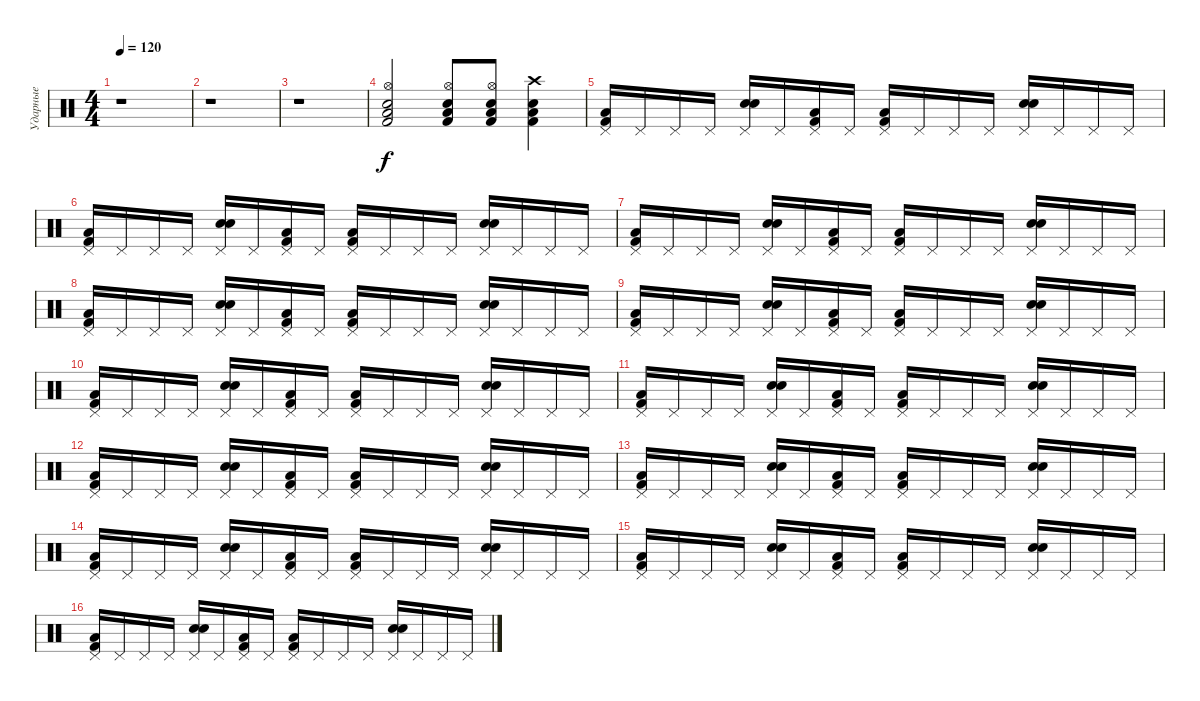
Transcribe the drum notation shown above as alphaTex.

\track ("Ударные" "Ударные") {instrument percussion}
\staff {score}
\articulation defaults
\ts (4 4)
\tempo 120
\clef neutral
\ks c
r.1{dy f} |
r.1 |
r.1 |
("Low Floor Tom (hit)" "Hi-Hat (open)" "Snare (hit) 2" "Kick (hit) 2").2 ("Low Floor Tom (hit)" "Hi-Hat (open)" "Snare (hit) 2" "Kick (hit) 2").8 ("Low Floor Tom (hit)" "Hi-Hat (open)" "Snare (hit) 2" "Kick (hit) 2").8 ("Low Floor Tom (hit)" "Crash high (hit)" "Snare (hit) 2" "Kick (hit) 2").4 |
("Kick (hit) 2" "Low Floor Tom (hit)" "Pedal Hi-Hat (hit)").16 "Pedal Hi-Hat (hit)".16 "Pedal Hi-Hat (hit)".16 "Pedal Hi-Hat (hit)".16 ("Electric Snare (hit)" "Electric Snare (hit)" "Pedal Hi-Hat (hit)").16 "Pedal Hi-Hat (hit)".16 ("Kick (hit) 2" "Low Floor Tom (hit)" "Pedal Hi-Hat (hit)").16 "Pedal Hi-Hat (hit)".16 ("Kick (hit) 2" "Low Floor Tom (hit)" "Pedal Hi-Hat (hit)").16 "Pedal Hi-Hat (hit)".16 "Pedal Hi-Hat (hit)".16 "Pedal Hi-Hat (hit)".16 ("Electric Snare (hit)" "Electric Snare (hit)" "Pedal Hi-Hat (hit)").16 "Pedal Hi-Hat (hit)".16 "Pedal Hi-Hat (hit)".16 "Pedal Hi-Hat (hit)".16 |
("Kick (hit) 2" "Low Floor Tom (hit)" "Pedal Hi-Hat (hit)").16 "Pedal Hi-Hat (hit)".16 "Pedal Hi-Hat (hit)".16 "Pedal Hi-Hat (hit)".16 ("Electric Snare (hit)" "Electric Snare (hit)" "Pedal Hi-Hat (hit)").16 "Pedal Hi-Hat (hit)".16 ("Kick (hit) 2" "Low Floor Tom (hit)" "Pedal Hi-Hat (hit)").16 "Pedal Hi-Hat (hit)".16 ("Kick (hit) 2" "Low Floor Tom (hit)" "Pedal Hi-Hat (hit)").16 "Pedal Hi-Hat (hit)".16 "Pedal Hi-Hat (hit)".16 "Pedal Hi-Hat (hit)".16 ("Electric Snare (hit)" "Electric Snare (hit)" "Pedal Hi-Hat (hit)").16 "Pedal Hi-Hat (hit)".16 "Pedal Hi-Hat (hit)".16 "Pedal Hi-Hat (hit)".16 |
("Kick (hit) 2" "Low Floor Tom (hit)" "Pedal Hi-Hat (hit)").16 "Pedal Hi-Hat (hit)".16 "Pedal Hi-Hat (hit)".16 "Pedal Hi-Hat (hit)".16 ("Electric Snare (hit)" "Electric Snare (hit)" "Pedal Hi-Hat (hit)").16 "Pedal Hi-Hat (hit)".16 ("Kick (hit) 2" "Low Floor Tom (hit)" "Pedal Hi-Hat (hit)").16 "Pedal Hi-Hat (hit)".16 ("Kick (hit) 2" "Low Floor Tom (hit)" "Pedal Hi-Hat (hit)").16 "Pedal Hi-Hat (hit)".16 "Pedal Hi-Hat (hit)".16 "Pedal Hi-Hat (hit)".16 ("Electric Snare (hit)" "Electric Snare (hit)" "Pedal Hi-Hat (hit)").16 "Pedal Hi-Hat (hit)".16 "Pedal Hi-Hat (hit)".16 "Pedal Hi-Hat (hit)".16 |
("Kick (hit) 2" "Low Floor Tom (hit)" "Pedal Hi-Hat (hit)").16 "Pedal Hi-Hat (hit)".16 "Pedal Hi-Hat (hit)".16 "Pedal Hi-Hat (hit)".16 ("Electric Snare (hit)" "Electric Snare (hit)" "Pedal Hi-Hat (hit)").16 "Pedal Hi-Hat (hit)".16 ("Kick (hit) 2" "Low Floor Tom (hit)" "Pedal Hi-Hat (hit)").16 "Pedal Hi-Hat (hit)".16 ("Kick (hit) 2" "Low Floor Tom (hit)" "Pedal Hi-Hat (hit)").16 "Pedal Hi-Hat (hit)".16 "Pedal Hi-Hat (hit)".16 "Pedal Hi-Hat (hit)".16 ("Electric Snare (hit)" "Electric Snare (hit)" "Pedal Hi-Hat (hit)").16 "Pedal Hi-Hat (hit)".16 "Pedal Hi-Hat (hit)".16 "Pedal Hi-Hat (hit)".16 |
("Kick (hit) 2" "Low Floor Tom (hit)" "Pedal Hi-Hat (hit)").16 "Pedal Hi-Hat (hit)".16 "Pedal Hi-Hat (hit)".16 "Pedal Hi-Hat (hit)".16 ("Electric Snare (hit)" "Electric Snare (hit)" "Pedal Hi-Hat (hit)").16 "Pedal Hi-Hat (hit)".16 ("Kick (hit) 2" "Low Floor Tom (hit)" "Pedal Hi-Hat (hit)").16 "Pedal Hi-Hat (hit)".16 ("Kick (hit) 2" "Low Floor Tom (hit)" "Pedal Hi-Hat (hit)").16 "Pedal Hi-Hat (hit)".16 "Pedal Hi-Hat (hit)".16 "Pedal Hi-Hat (hit)".16 ("Electric Snare (hit)" "Electric Snare (hit)" "Pedal Hi-Hat (hit)").16 "Pedal Hi-Hat (hit)".16 "Pedal Hi-Hat (hit)".16 "Pedal Hi-Hat (hit)".16 |
("Kick (hit) 2" "Low Floor Tom (hit)" "Pedal Hi-Hat (hit)").16 "Pedal Hi-Hat (hit)".16 "Pedal Hi-Hat (hit)".16 "Pedal Hi-Hat (hit)".16 ("Electric Snare (hit)" "Electric Snare (hit)" "Pedal Hi-Hat (hit)").16 "Pedal Hi-Hat (hit)".16 ("Kick (hit) 2" "Low Floor Tom (hit)" "Pedal Hi-Hat (hit)").16 "Pedal Hi-Hat (hit)".16 ("Kick (hit) 2" "Low Floor Tom (hit)" "Pedal Hi-Hat (hit)").16 "Pedal Hi-Hat (hit)".16 "Pedal Hi-Hat (hit)".16 "Pedal Hi-Hat (hit)".16 ("Electric Snare (hit)" "Electric Snare (hit)" "Pedal Hi-Hat (hit)").16 "Pedal Hi-Hat (hit)".16 "Pedal Hi-Hat (hit)".16 "Pedal Hi-Hat (hit)".16 |
("Kick (hit) 2" "Low Floor Tom (hit)" "Pedal Hi-Hat (hit)").16 "Pedal Hi-Hat (hit)".16 "Pedal Hi-Hat (hit)".16 "Pedal Hi-Hat (hit)".16 ("Electric Snare (hit)" "Electric Snare (hit)" "Pedal Hi-Hat (hit)").16 "Pedal Hi-Hat (hit)".16 ("Kick (hit) 2" "Low Floor Tom (hit)" "Pedal Hi-Hat (hit)").16 "Pedal Hi-Hat (hit)".16 ("Kick (hit) 2" "Low Floor Tom (hit)" "Pedal Hi-Hat (hit)").16 "Pedal Hi-Hat (hit)".16 "Pedal Hi-Hat (hit)".16 "Pedal Hi-Hat (hit)".16 ("Electric Snare (hit)" "Electric Snare (hit)" "Pedal Hi-Hat (hit)").16 "Pedal Hi-Hat (hit)".16 "Pedal Hi-Hat (hit)".16 "Pedal Hi-Hat (hit)".16 |
("Kick (hit) 2" "Low Floor Tom (hit)" "Pedal Hi-Hat (hit)").16 "Pedal Hi-Hat (hit)".16 "Pedal Hi-Hat (hit)".16 "Pedal Hi-Hat (hit)".16 ("Electric Snare (hit)" "Electric Snare (hit)" "Pedal Hi-Hat (hit)").16 "Pedal Hi-Hat (hit)".16 ("Kick (hit) 2" "Low Floor Tom (hit)" "Pedal Hi-Hat (hit)").16 "Pedal Hi-Hat (hit)".16 ("Kick (hit) 2" "Low Floor Tom (hit)" "Pedal Hi-Hat (hit)").16 "Pedal Hi-Hat (hit)".16 "Pedal Hi-Hat (hit)".16 "Pedal Hi-Hat (hit)".16 ("Electric Snare (hit)" "Electric Snare (hit)" "Pedal Hi-Hat (hit)").16 "Pedal Hi-Hat (hit)".16 "Pedal Hi-Hat (hit)".16 "Pedal Hi-Hat (hit)".16 |
("Kick (hit) 2" "Low Floor Tom (hit)" "Pedal Hi-Hat (hit)").16 "Pedal Hi-Hat (hit)".16 "Pedal Hi-Hat (hit)".16 "Pedal Hi-Hat (hit)".16 ("Electric Snare (hit)" "Electric Snare (hit)" "Pedal Hi-Hat (hit)").16 "Pedal Hi-Hat (hit)".16 ("Kick (hit) 2" "Low Floor Tom (hit)" "Pedal Hi-Hat (hit)").16 "Pedal Hi-Hat (hit)".16 ("Kick (hit) 2" "Low Floor Tom (hit)" "Pedal Hi-Hat (hit)").16 "Pedal Hi-Hat (hit)".16 "Pedal Hi-Hat (hit)".16 "Pedal Hi-Hat (hit)".16 ("Electric Snare (hit)" "Electric Snare (hit)" "Pedal Hi-Hat (hit)").16 "Pedal Hi-Hat (hit)".16 "Pedal Hi-Hat (hit)".16 "Pedal Hi-Hat (hit)".16 |
("Kick (hit) 2" "Low Floor Tom (hit)" "Pedal Hi-Hat (hit)").16 "Pedal Hi-Hat (hit)".16 "Pedal Hi-Hat (hit)".16 "Pedal Hi-Hat (hit)".16 ("Electric Snare (hit)" "Electric Snare (hit)" "Pedal Hi-Hat (hit)").16 "Pedal Hi-Hat (hit)".16 ("Kick (hit) 2" "Low Floor Tom (hit)" "Pedal Hi-Hat (hit)").16 "Pedal Hi-Hat (hit)".16 ("Kick (hit) 2" "Low Floor Tom (hit)" "Pedal Hi-Hat (hit)").16 "Pedal Hi-Hat (hit)".16 "Pedal Hi-Hat (hit)".16 "Pedal Hi-Hat (hit)".16 ("Electric Snare (hit)" "Electric Snare (hit)" "Pedal Hi-Hat (hit)").16 "Pedal Hi-Hat (hit)".16 "Pedal Hi-Hat (hit)".16 "Pedal Hi-Hat (hit)".16 |
("Kick (hit) 2" "Low Floor Tom (hit)" "Pedal Hi-Hat (hit)").16 "Pedal Hi-Hat (hit)".16 "Pedal Hi-Hat (hit)".16 "Pedal Hi-Hat (hit)".16 ("Electric Snare (hit)" "Electric Snare (hit)" "Pedal Hi-Hat (hit)").16 "Pedal Hi-Hat (hit)".16 ("Kick (hit) 2" "Low Floor Tom (hit)" "Pedal Hi-Hat (hit)").16 "Pedal Hi-Hat (hit)".16 ("Kick (hit) 2" "Low Floor Tom (hit)" "Pedal Hi-Hat (hit)").16 "Pedal Hi-Hat (hit)".16 "Pedal Hi-Hat (hit)".16 "Pedal Hi-Hat (hit)".16 ("Electric Snare (hit)" "Electric Snare (hit)" "Pedal Hi-Hat (hit)").16 "Pedal Hi-Hat (hit)".16 "Pedal Hi-Hat (hit)".16 "Pedal Hi-Hat (hit)".16 |
("Kick (hit) 2" "Low Floor Tom (hit)" "Pedal Hi-Hat (hit)").16 "Pedal Hi-Hat (hit)".16 "Pedal Hi-Hat (hit)".16 "Pedal Hi-Hat (hit)".16 ("Electric Snare (hit)" "Electric Snare (hit)" "Pedal Hi-Hat (hit)").16 "Pedal Hi-Hat (hit)".16 ("Kick (hit) 2" "Low Floor Tom (hit)" "Pedal Hi-Hat (hit)").16 "Pedal Hi-Hat (hit)".16 ("Kick (hit) 2" "Low Floor Tom (hit)" "Pedal Hi-Hat (hit)").16 "Pedal Hi-Hat (hit)".16 "Pedal Hi-Hat (hit)".16 "Pedal Hi-Hat (hit)".16 ("Electric Snare (hit)" "Electric Snare (hit)" "Pedal Hi-Hat (hit)").16 "Pedal Hi-Hat (hit)".16 "Pedal Hi-Hat (hit)".16 "Pedal Hi-Hat (hit)".16
